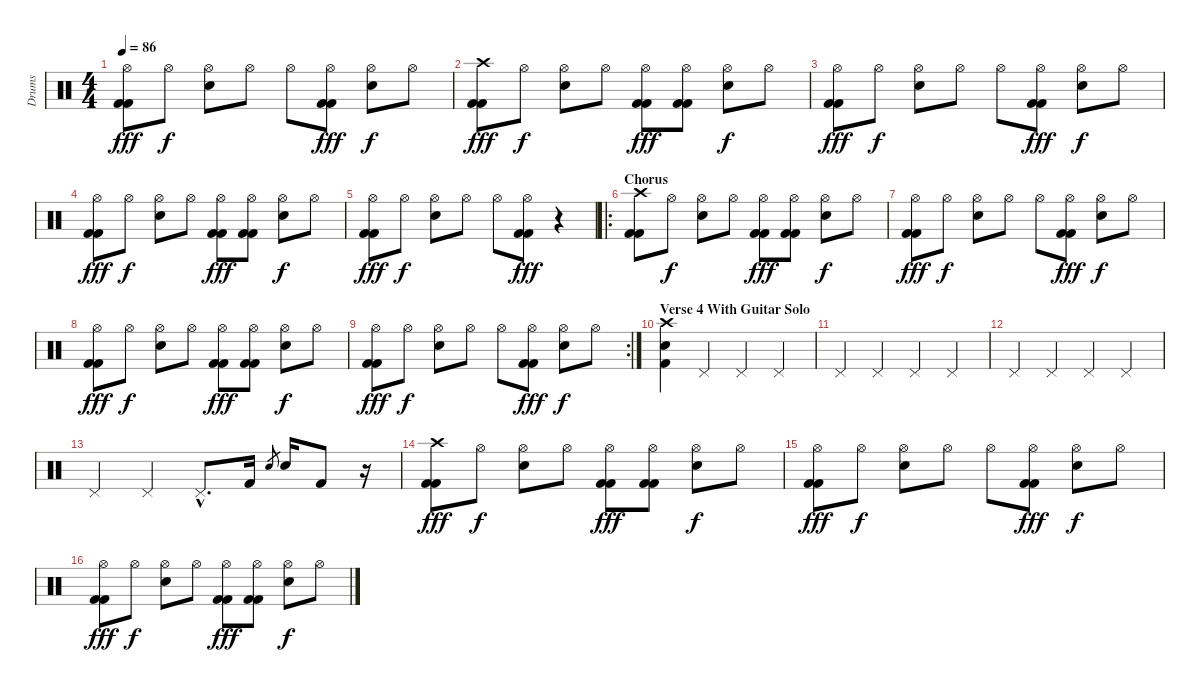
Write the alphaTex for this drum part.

\track ("Drums" "Drums") {instrument percussion}
\staff {score}
\articulation defaults
\ts (4 4)
\tempo 86
\clef neutral
\ks c
("Hi-Hat (open)" "Kick (hit) 2" "Kick (hit) 2").8{dy fff} "Hi-Hat (open)".8{dy f} ("Hi-Hat (open)" "Electric Snare (hit)").8 "Hi-Hat (open)".8 "Hi-Hat (open)".8 ("Hi-Hat (open)" "Kick (hit) 2" "Kick (hit) 2").8{dy fff} ("Hi-Hat (open)" "Electric Snare (hit)").8{dy f} "Hi-Hat (open)".8 |
("Crash high (hit)" "Kick (hit) 2" "Kick (hit) 2").8{dy fff} "Hi-Hat (open)".8{dy f} ("Hi-Hat (open)" "Electric Snare (hit)").8 "Hi-Hat (open)".8 ("Hi-Hat (open)" "Kick (hit) 2" "Kick (hit) 2").8{dy fff} ("Hi-Hat (open)" "Kick (hit) 2" "Kick (hit) 2").8 ("Hi-Hat (open)" "Electric Snare (hit)").8{dy f} "Hi-Hat (open)".8 |
("Hi-Hat (open)" "Kick (hit) 2" "Kick (hit) 2").8{dy fff} "Hi-Hat (open)".8{dy f} ("Hi-Hat (open)" "Electric Snare (hit)").8 "Hi-Hat (open)".8 "Hi-Hat (open)".8 ("Hi-Hat (open)" "Kick (hit) 2" "Kick (hit) 2").8{dy fff} ("Hi-Hat (open)" "Electric Snare (hit)").8{dy f} "Hi-Hat (open)".8 |
("Hi-Hat (open)" "Kick (hit) 2" "Kick (hit) 2").8{dy fff} "Hi-Hat (open)".8{dy f} ("Hi-Hat (open)" "Electric Snare (hit)").8 "Hi-Hat (open)".8 ("Hi-Hat (open)" "Kick (hit) 2" "Kick (hit) 2").8{dy fff} ("Hi-Hat (open)" "Kick (hit) 2" "Kick (hit) 2").8 ("Hi-Hat (open)" "Electric Snare (hit)").8{dy f} "Hi-Hat (open)".8 |
("Hi-Hat (open)" "Kick (hit) 2" "Kick (hit) 2").8{dy fff} "Hi-Hat (open)".8{dy f} ("Hi-Hat (open)" "Electric Snare (hit)").8 "Hi-Hat (open)".8 "Hi-Hat (open)".8 ("Hi-Hat (open)" "Kick (hit) 2" "Kick (hit) 2").8{dy fff} r.4 |
\ro
\section ("" "Chorus")
("Crash high (hit)" "Kick (hit) 2" "Kick (hit) 2").8 "Hi-Hat (open)".8{dy f} ("Hi-Hat (open)" "Electric Snare (hit)").8 "Hi-Hat (open)".8 ("Hi-Hat (open)" "Kick (hit) 2" "Kick (hit) 2").8{dy fff} ("Hi-Hat (open)" "Kick (hit) 2" "Kick (hit) 2").8 ("Hi-Hat (open)" "Electric Snare (hit)").8{dy f} "Hi-Hat (open)".8 |
("Hi-Hat (open)" "Kick (hit) 2" "Kick (hit) 2").8{dy fff} "Hi-Hat (open)".8{dy f} ("Hi-Hat (open)" "Electric Snare (hit)").8 "Hi-Hat (open)".8 "Hi-Hat (open)".8 ("Hi-Hat (open)" "Kick (hit) 2" "Kick (hit) 2").8{dy fff} ("Hi-Hat (open)" "Electric Snare (hit)").8{dy f} "Hi-Hat (open)".8 |
("Hi-Hat (open)" "Kick (hit) 2" "Kick (hit) 2").8{dy fff} "Hi-Hat (open)".8{dy f} ("Hi-Hat (open)" "Electric Snare (hit)").8 "Hi-Hat (open)".8 ("Hi-Hat (open)" "Kick (hit) 2" "Kick (hit) 2").8{dy fff} ("Hi-Hat (open)" "Kick (hit) 2" "Kick (hit) 2").8 ("Hi-Hat (open)" "Electric Snare (hit)").8{dy f} "Hi-Hat (open)".8 |
\rc 2
("Hi-Hat (open)" "Kick (hit) 2" "Kick (hit) 2").8{dy fff} "Hi-Hat (open)".8{dy f} ("Hi-Hat (open)" "Electric Snare (hit)").8 "Hi-Hat (open)".8 "Hi-Hat (open)".8 ("Hi-Hat (open)" "Kick (hit) 2" "Kick (hit) 2").8{dy fff} ("Hi-Hat (open)" "Electric Snare (hit)").8{dy f} "Hi-Hat (open)".8 |
\section ("" "Verse 4 With Guitar Solo")
("Crash high (hit)" "Electric Snare (hit)" "Kick (hit) 2").4 "Pedal Hi-Hat (hit)".4 "Pedal Hi-Hat (hit)".4 "Pedal Hi-Hat (hit)".4 |
"Pedal Hi-Hat (hit)".4 "Pedal Hi-Hat (hit)".4 "Pedal Hi-Hat (hit)".4 "Pedal Hi-Hat (hit)".4 |
"Pedal Hi-Hat (hit)".4 "Pedal Hi-Hat (hit)".4 "Pedal Hi-Hat (hit)".4 "Pedal Hi-Hat (hit)".4 |
"Pedal Hi-Hat (hit)".4 "Pedal Hi-Hat (hit)".4 "Pedal Hi-Hat (hit)"{hac}.8{d} "Kick (hit) 2".16 "Electric Snare (hit)".8{gr} "Electric Snare (hit)".16 "Kick (hit) 2".8 r.16 |
("Crash high (hit)" "Kick (hit) 2" "Kick (hit) 2").8{dy fff} "Hi-Hat (open)".8{dy f} ("Hi-Hat (open)" "Electric Snare (hit)").8 "Hi-Hat (open)".8 ("Hi-Hat (open)" "Kick (hit) 2" "Kick (hit) 2").8{dy fff} ("Hi-Hat (open)" "Kick (hit) 2" "Kick (hit) 2").8 ("Hi-Hat (open)" "Electric Snare (hit)").8{dy f} "Hi-Hat (open)".8 |
("Hi-Hat (open)" "Kick (hit) 2" "Kick (hit) 2").8{dy fff} "Hi-Hat (open)".8{dy f} ("Hi-Hat (open)" "Electric Snare (hit)").8 "Hi-Hat (open)".8 "Hi-Hat (open)".8 ("Hi-Hat (open)" "Kick (hit) 2" "Kick (hit) 2").8{dy fff} ("Hi-Hat (open)" "Electric Snare (hit)").8{dy f} "Hi-Hat (open)".8 |
("Hi-Hat (open)" "Kick (hit) 2" "Kick (hit) 2").8{dy fff} "Hi-Hat (open)".8{dy f} ("Hi-Hat (open)" "Electric Snare (hit)").8 "Hi-Hat (open)".8 ("Hi-Hat (open)" "Kick (hit) 2" "Kick (hit) 2").8{dy fff} ("Hi-Hat (open)" "Kick (hit) 2" "Kick (hit) 2").8 ("Hi-Hat (open)" "Electric Snare (hit)").8{dy f} "Hi-Hat (open)".8
